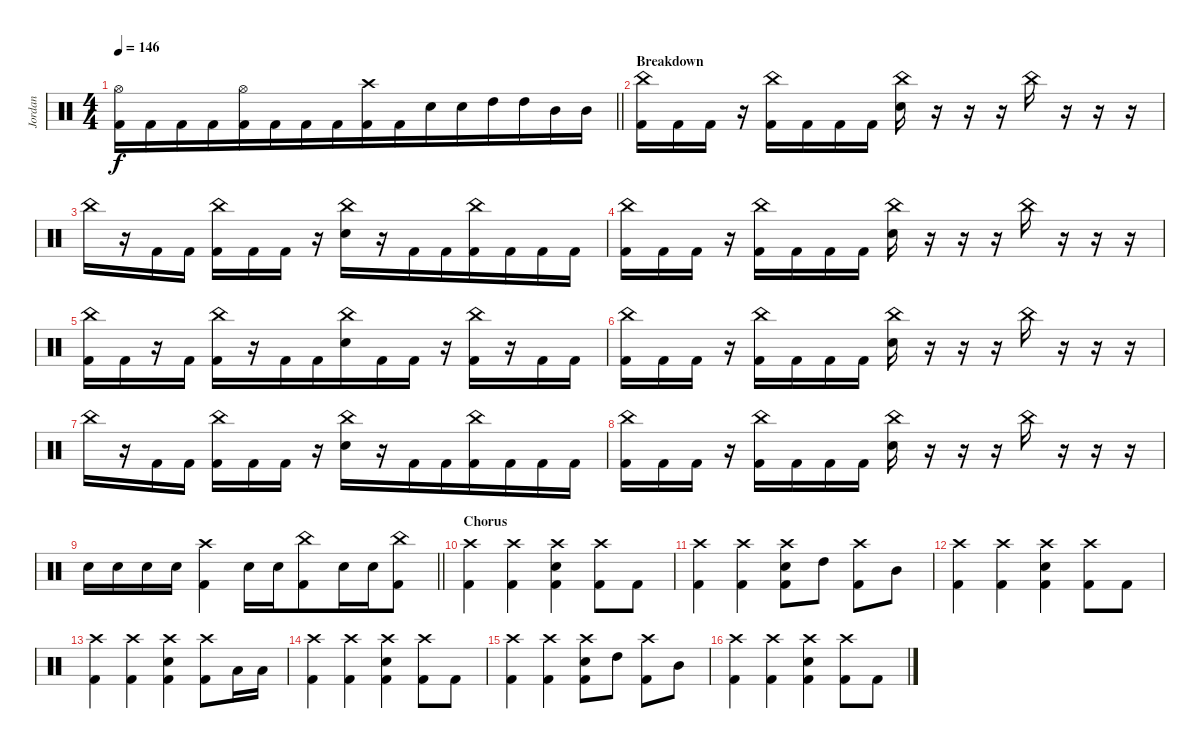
\track ("Jordan" "Jordan") {instrument percussion}
\staff {score}
\articulation defaults
\ts (4 4)
\tempo 146
\clef neutral
\barLineRight lightlight
\ks c
("Hi-Hat (open)" "Kick (hit) 2").16{dy f beam merge} "Kick (hit) 2".16 "Kick (hit) 2".16 "Kick (hit) 2".16{beam merge} ("Hi-Hat (open)" "Kick (hit) 2").16{beam merge} "Kick (hit) 2".16 "Kick (hit) 2".16 "Kick (hit) 2".16{beam merge} ("Crash high (hit)" "Kick (hit) 2").16 "Kick (hit) 2".16 "Snare (hit) 2".16 "Snare (hit) 2".16{beam merge} "High Tom (hit)".16 "High Tom (hit)".16 "Mid Tom (hit)".16{beam merge} "Mid Tom (hit)".16 |
\section ("" "Breakdown")
("China (hit)" "Kick (hit) 2").16 "Kick (hit) 2".16{beam merge} "Kick (hit) 2".16 r.16 ("China (hit)" "Kick (hit) 2").16 "Kick (hit) 2".16 "Kick (hit) 2".16{beam merge} "Kick (hit) 2".16 ("China (hit)" "Snare (hit) 2").16 r.16 r.16{beam merge} r.16{beam merge} "China (hit)".16 r.16 r.16 r.16 |
"China (hit)".16 r.16 "Kick (hit) 2".16 "Kick (hit) 2".16 ("China (hit)" "Kick (hit) 2").16 "Kick (hit) 2".16 "Kick (hit) 2".16 r.16{beam merge} ("China (hit)" "Snare (hit) 2").16{beam merge} r.16{beam merge} "Kick (hit) 2".16 "Kick (hit) 2".16{beam merge} ("China (hit)" "Kick (hit) 2").16{beam merge} "Kick (hit) 2".16{beam merge} "Kick (hit) 2".16 "Kick (hit) 2".16 |
("China (hit)" "Kick (hit) 2").16 "Kick (hit) 2".16{beam merge} "Kick (hit) 2".16 r.16 ("China (hit)" "Kick (hit) 2").16 "Kick (hit) 2".16 "Kick (hit) 2".16{beam merge} "Kick (hit) 2".16 ("China (hit)" "Snare (hit) 2").16 r.16 r.16{beam merge} r.16{beam merge} "China (hit)".16 r.16 r.16 r.16 |
("China (hit)" "Kick (hit) 2").16{beam merge} "Kick (hit) 2".16 r.16{beam merge} "Kick (hit) 2".16 ("China (hit)" "Kick (hit) 2").16 r.16{beam merge} "Kick (hit) 2".16 "Kick (hit) 2".16{beam merge} ("China (hit)" "Snare (hit) 2").16{beam merge} "Kick (hit) 2".16 "Kick (hit) 2".16 r.16{beam merge} ("China (hit)" "Kick (hit) 2").16 r.16{beam merge} "Kick (hit) 2".16 "Kick (hit) 2".16 |
("China (hit)" "Kick (hit) 2").16 "Kick (hit) 2".16{beam merge} "Kick (hit) 2".16 r.16 ("China (hit)" "Kick (hit) 2").16 "Kick (hit) 2".16 "Kick (hit) 2".16{beam merge} "Kick (hit) 2".16 ("China (hit)" "Snare (hit) 2").16 r.16 r.16{beam merge} r.16{beam merge} "China (hit)".16 r.16 r.16 r.16 |
"China (hit)".16 r.16 "Kick (hit) 2".16 "Kick (hit) 2".16 ("China (hit)" "Kick (hit) 2").16 "Kick (hit) 2".16 "Kick (hit) 2".16 r.16{beam merge} ("China (hit)" "Snare (hit) 2").16{beam merge} r.16{beam merge} "Kick (hit) 2".16 "Kick (hit) 2".16{beam merge} ("China (hit)" "Kick (hit) 2").16{beam merge} "Kick (hit) 2".16{beam merge} "Kick (hit) 2".16 "Kick (hit) 2".16 |
("China (hit)" "Kick (hit) 2").16 "Kick (hit) 2".16{beam merge} "Kick (hit) 2".16 r.16 ("China (hit)" "Kick (hit) 2").16 "Kick (hit) 2".16 "Kick (hit) 2".16{beam merge} "Kick (hit) 2".16 ("China (hit)" "Snare (hit) 2").16 r.16 r.16{beam merge} r.16{beam merge} "China (hit)".16 r.16 r.16 r.16 |
\barLineRight lightlight "Snare (hit) 2".16 "Snare (hit) 2".16{beam merge} "Snare (hit) 2".16 "Snare (hit) 2".16
("Crash high (hit)" "Kick (hit) 2").4{beam merge} "Snare (hit) 2".16{beam merge} "Snare (hit) 2".16 ("China (hit)" "Kick (hit) 2").8{beam merge} "Snare (hit) 2".16{beam merge} "Snare (hit) 2".16 ("China (hit)" "Kick (hit) 2").8 |
\section ("" "Chorus")
("Crash high (hit)" "Kick (hit) 2").4 ("Crash high (hit)" "Kick (hit) 2").4{beam merge} ("Crash high (hit)" "Snare (hit) 2" "Kick (hit) 2").4 ("Crash high (hit)" "Kick (hit) 2").8{beam merge} "Kick (hit) 2".8 |
("Crash high (hit)" "Kick (hit) 2").4 ("Crash high (hit)" "Kick (hit) 2").4{beam merge} ("Crash high (hit)" "Snare (hit) 2" "Kick (hit) 2").8 "High Tom (hit)".8 ("Crash high (hit)" "Kick (hit) 2").8{beam merge} "Mid Tom (hit)".8 |
("Crash high (hit)" "Kick (hit) 2").4 ("Crash high (hit)" "Kick (hit) 2").4{beam merge} ("Crash high (hit)" "Snare (hit) 2" "Kick (hit) 2").4 ("Crash high (hit)" "Kick (hit) 2").8{beam merge} "Kick (hit) 2".8 |
("Crash high (hit)" "Kick (hit) 2").4 ("Crash high (hit)" "Kick (hit) 2").4{beam merge} ("Crash high (hit)" "Snare (hit) 2" "Kick (hit) 2").4 ("Crash high (hit)" "Kick (hit) 2").8 "Low Tom (hit)".16 "Low Tom (hit)".16 |
("Crash high (hit)" "Kick (hit) 2").4 ("Crash high (hit)" "Kick (hit) 2").4{beam merge} ("Crash high (hit)" "Snare (hit) 2" "Kick (hit) 2").4 ("Crash high (hit)" "Kick (hit) 2").8{beam merge} "Kick (hit) 2".8 |
("Crash high (hit)" "Kick (hit) 2").4 ("Crash high (hit)" "Kick (hit) 2").4{beam merge} ("Crash high (hit)" "Snare (hit) 2" "Kick (hit) 2").8 "High Tom (hit)".8 ("Crash high (hit)" "Kick (hit) 2").8{beam merge} "Mid Tom (hit)".8 |
("Crash high (hit)" "Kick (hit) 2").4 ("Crash high (hit)" "Kick (hit) 2").4{beam merge} ("Crash high (hit)" "Snare (hit) 2" "Kick (hit) 2").4 ("Crash high (hit)" "Kick (hit) 2").8{beam merge} "Kick (hit) 2".8
